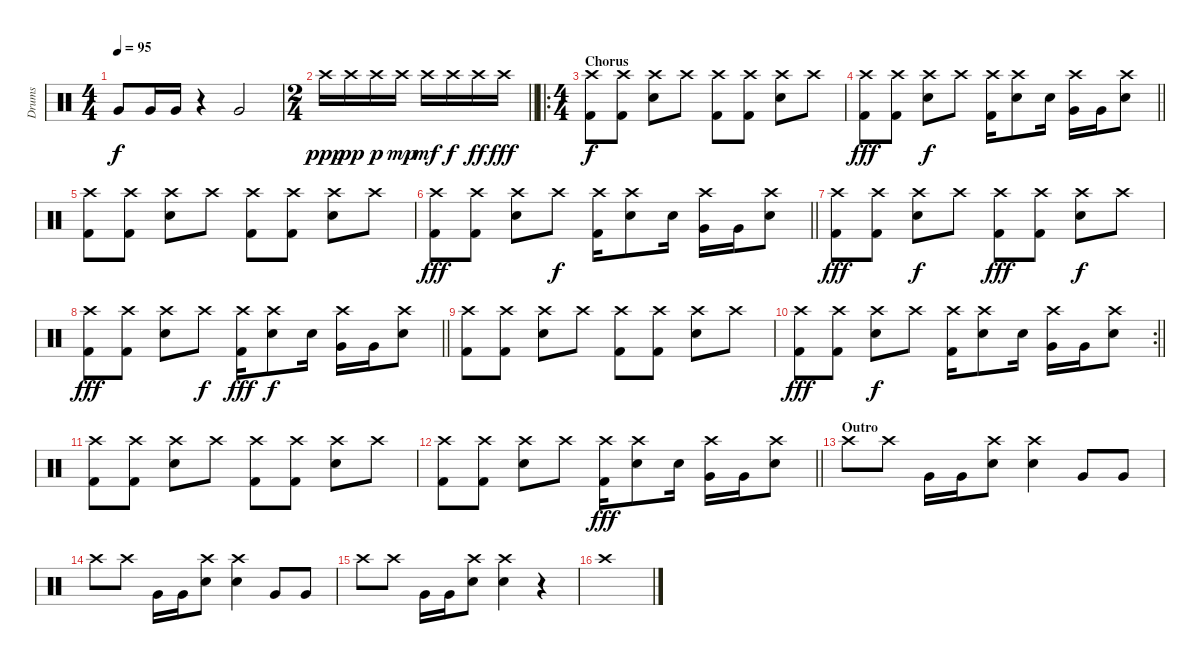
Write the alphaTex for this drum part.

\track ("Drums" "Drums") {instrument percussion}
\staff {score}
\articulation defaults
\ts (4 4)
\tempo 95
\clef neutral
\ks c "Very Low Tom (hit)".8{dy f} "Very Low Tom (hit)".16 "Very Low Tom (hit)".16
r.4 "Very Low Tom (hit)".2 |
\ts (2 4)
\barLineRight lightlight "Crash high (hit)".16{dy ppp} "Crash high (hit)".16{dy pp} "Crash high (hit)".16{dy p} "Crash high (hit)".16{dy mp} "Crash high (hit)".16{dy mf} "Crash high (hit)".16{dy f} "Crash high (hit)".16{dy ff} "Crash high (hit)".16{dy fff}
|
\ro
\ts (4 4)
\section ("" "Chorus")
("Crash high (hit)" "Kick (hit) 2").8{dy f} ("Crash high (hit)" "Kick (hit) 2").8 ("Crash high (hit)" "Snare (hit) 2").8 "Crash high (hit)".8 ("Crash high (hit)" "Kick (hit) 2").8 ("Crash high (hit)" "Kick (hit) 2").8 ("Crash high (hit)" "Snare (hit) 2").8 "Crash high (hit)".8 |
\barLineRight lightlight
("Crash high (hit)" "Kick (hit) 2").8{dy fff} ("Crash high (hit)" "Kick (hit) 2").8 ("Crash high (hit)" "Snare (hit) 2").8{dy f} "Crash high (hit)".8 ("Kick (hit) 2" "Crash high (hit)").16 ("Snare (hit) 2" "Crash high (hit)").8 "Snare (hit) 2".16 ("Very Low Tom (hit)" "Crash high (hit)").16 "Very Low Tom (hit)".16 ("Snare (hit) 2" "Crash high (hit)").8 |
("Crash high (hit)" "Kick (hit) 2").8 ("Crash high (hit)" "Kick (hit) 2").8 ("Crash high (hit)" "Snare (hit) 2").8 "Crash high (hit)".8 ("Crash high (hit)" "Kick (hit) 2").8 ("Crash high (hit)" "Kick (hit) 2").8 ("Crash high (hit)" "Snare (hit) 2").8 "Crash high (hit)".8 |
\barLineRight lightlight
("Crash high (hit)" "Kick (hit) 2").8{dy fff} ("Crash high (hit)" "Kick (hit) 2").8 ("Crash high (hit)" "Snare (hit) 2").8 "Crash high (hit)".8{dy f} ("Kick (hit) 2" "Crash high (hit)").16 ("Snare (hit) 2" "Crash high (hit)").8 "Snare (hit) 2".16 ("Very Low Tom (hit)" "Crash high (hit)").16 "Very Low Tom (hit)".16 ("Snare (hit) 2" "Crash high (hit)").8 |
("Crash high (hit)" "Kick (hit) 2").8{dy fff} ("Crash high (hit)" "Kick (hit) 2").8 ("Crash high (hit)" "Snare (hit) 2").8{dy f} "Crash high (hit)".8 ("Crash high (hit)" "Kick (hit) 2").8{dy fff} ("Crash high (hit)" "Kick (hit) 2").8 ("Crash high (hit)" "Snare (hit) 2").8{dy f} "Crash high (hit)".8 |
\barLineRight lightlight
("Crash high (hit)" "Kick (hit) 2").8{dy fff} ("Crash high (hit)" "Kick (hit) 2").8 ("Crash high (hit)" "Snare (hit) 2").8 "Crash high (hit)".8{dy f} ("Kick (hit) 2" "Crash high (hit)").16{dy fff} ("Snare (hit) 2" "Crash high (hit)").8{dy f} "Snare (hit) 2".16 ("Very Low Tom (hit)" "Crash high (hit)").16 "Very Low Tom (hit)".16 ("Snare (hit) 2" "Crash high (hit)").8 |
("Crash high (hit)" "Kick (hit) 2").8 ("Crash high (hit)" "Kick (hit) 2").8 ("Crash high (hit)" "Snare (hit) 2").8 "Crash high (hit)".8 ("Crash high (hit)" "Kick (hit) 2").8 ("Crash high (hit)" "Kick (hit) 2").8 ("Crash high (hit)" "Snare (hit) 2").8 "Crash high (hit)".8 |
\rc 2
\barLineRight lightlight
("Crash high (hit)" "Kick (hit) 2").8{dy fff} ("Crash high (hit)" "Kick (hit) 2").8 ("Crash high (hit)" "Snare (hit) 2").8{dy f} "Crash high (hit)".8 ("Kick (hit) 2" "Crash high (hit)").16 ("Snare (hit) 2" "Crash high (hit)").8 "Snare (hit) 2".16 ("Very Low Tom (hit)" "Crash high (hit)").16 "Very Low Tom (hit)".16 ("Snare (hit) 2" "Crash high (hit)").8 |
("Crash high (hit)" "Kick (hit) 2").8 ("Crash high (hit)" "Kick (hit) 2").8 ("Crash high (hit)" "Snare (hit) 2").8 "Crash high (hit)".8 ("Crash high (hit)" "Kick (hit) 2").8 ("Crash high (hit)" "Kick (hit) 2").8 ("Crash high (hit)" "Snare (hit) 2").8 "Crash high (hit)".8 |
\barLineRight lightlight
("Crash high (hit)" "Kick (hit) 2").8 ("Crash high (hit)" "Kick (hit) 2").8 ("Crash high (hit)" "Snare (hit) 2").8 "Crash high (hit)".8 ("Kick (hit) 2" "Crash high (hit)").16{dy fff} ("Snare (hit) 2" "Crash high (hit)").8 "Snare (hit) 2".16 ("Very Low Tom (hit)" "Crash high (hit)").16 "Very Low Tom (hit)".16 ("Snare (hit) 2" "Crash high (hit)").8 |
\section ("" "Outro")
"Crash high (hit)".8 "Crash high (hit)".8 "Very Low Tom (hit)".16 "Very Low Tom (hit)".16 ("Crash high (hit)" "Snare (hit) 2").8 ("Crash high (hit)" "Snare (hit) 2").4 "Very Low Tom (hit)".8 "Very Low Tom (hit)".8 |
"Crash high (hit)".8 "Crash high (hit)".8 "Very Low Tom (hit)".16 "Very Low Tom (hit)".16 ("Crash high (hit)" "Snare (hit) 2").8 ("Crash high (hit)" "Snare (hit) 2").4 "Very Low Tom (hit)".8 "Very Low Tom (hit)".8 |
"Crash high (hit)".8 "Crash high (hit)".8 "Very Low Tom (hit)".16 "Very Low Tom (hit)".16 ("Crash high (hit)" "Snare (hit) 2").8 ("Crash high (hit)" "Snare (hit) 2").4 r.4 |
"Crash high (hit)".1
